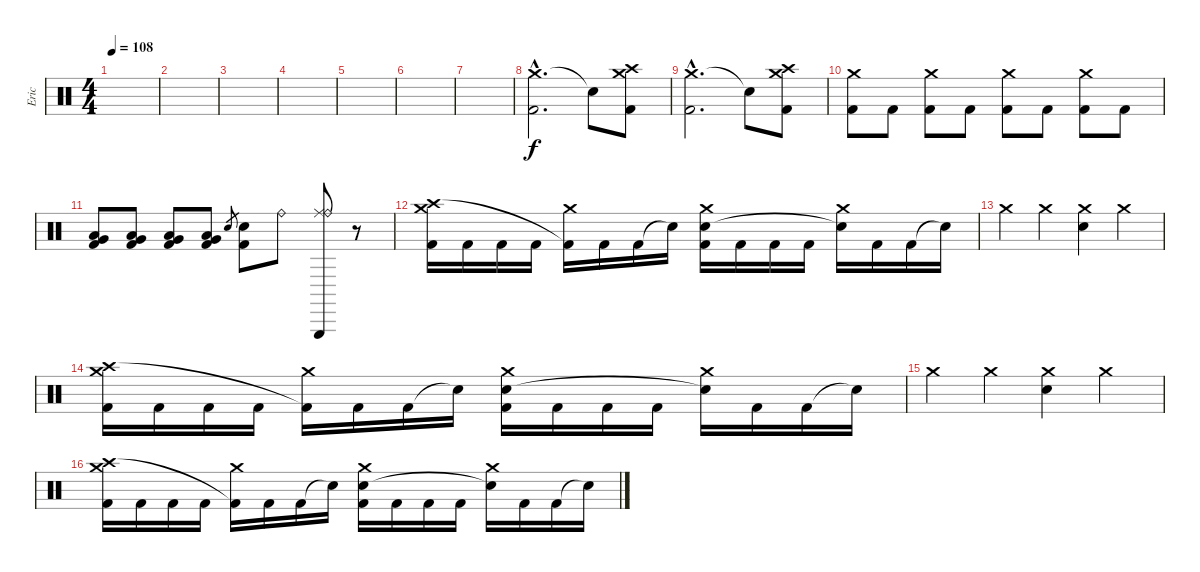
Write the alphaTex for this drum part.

\track ("Eric" "Eric") {instrument percussion}
\staff {score}
\articulation defaults
\ts (4 4)
\tempo 108
\clef neutral
\ks c
|
|
|
|
|
|
|
("Crash medium (hit)"{hac} "Kick (hit) 2"{hac}).2{d} "Snare (hit)"{t}.8 ("Crash medium (hit)" "Crash high (hit)" "Kick (hit) 2").8 |
("Crash medium (hit)"{hac} "Kick (hit) 2"{hac}).2{d} "Snare (hit)"{t}.8 ("Crash medium (hit)" "Crash high (hit)" "Kick (hit) 2").8 |
("Crash medium (hit)" "Kick (hit) 2").8 "Kick (hit) 2".8 ("Crash medium (hit)" "Kick (hit) 2").8 "Kick (hit) 2".8 ("Crash medium (hit)" "Kick (hit) 2").8 "Kick (hit) 2".8 ("Crash medium (hit)" "Kick (hit) 2").8 "Kick (hit) 2".8 |
("Low Tom (hit)" "Very Low Tom (hit)" "Kick (hit) 2").8 ("Low Tom (hit)" "Very Low Tom (hit)" "Kick (hit) 2").8 ("Low Tom (hit)" "Very Low Tom (hit)" "Kick (hit) 2").8 ("Low Tom (hit)" "Very Low Tom (hit)" "Kick (hit) 2").8 "Electric Snare (hit)".8{gr} ("Electric Snare (hit)" "Kick (hit) 2").8 "Ride (bell)".8 ("Ride (middle)" "Triangle (hit)" "Ride (bell)").8 r.8 |
("Crash medium (hit)" "Crash high (hit)" "Kick (hit) 2").16 "Kick (hit) 2".16 "Kick (hit) 2".16 "Kick (hit) 2".16 ("Crash medium (hit)" "Kick (hit) 2"{t}).16 "Kick (hit) 2".16 "Kick (hit) 2".16 "Snare (hit)"{t}.16 ("Crash medium (hit)" "Electric Snare (hit)" "Kick (hit) 2").16 "Kick (hit) 2".16 "Kick (hit) 2".16 "Kick (hit) 2".16 ("Crash medium (hit)" "Snare (hit)"{t}).16 "Kick (hit) 2".16 "Kick (hit) 2".16 "Snare (hit)"{t}.16 |
"Crash medium (hit)".4 "Crash medium (hit)".4 ("Crash medium (hit)" "Electric Snare (hit)").4 "Crash medium (hit)".4 |
("Crash medium (hit)" "Crash high (hit)" "Kick (hit) 2").16 "Kick (hit) 2".16 "Kick (hit) 2".16 "Kick (hit) 2".16 ("Crash medium (hit)" "Kick (hit) 2"{t}).16 "Kick (hit) 2".16 "Kick (hit) 2".16 "Snare (hit)"{t}.16 ("Crash medium (hit)" "Electric Snare (hit)" "Kick (hit) 2").16 "Kick (hit) 2".16 "Kick (hit) 2".16 "Kick (hit) 2".16 ("Crash medium (hit)" "Snare (hit)"{t}).16 "Kick (hit) 2".16 "Kick (hit) 2".16 "Snare (hit)"{t}.16 |
"Crash medium (hit)".4 "Crash medium (hit)".4 ("Crash medium (hit)" "Electric Snare (hit)").4 "Crash medium (hit)".4 |
("Crash medium (hit)" "Crash high (hit)" "Kick (hit) 2").16 "Kick (hit) 2".16 "Kick (hit) 2".16 "Kick (hit) 2".16 ("Crash medium (hit)" "Kick (hit) 2"{t}).16 "Kick (hit) 2".16 "Kick (hit) 2".16 "Snare (hit)"{t}.16 ("Crash medium (hit)" "Electric Snare (hit)" "Kick (hit) 2").16 "Kick (hit) 2".16 "Kick (hit) 2".16 "Kick (hit) 2".16 ("Crash medium (hit)" "Snare (hit)"{t}).16 "Kick (hit) 2".16 "Kick (hit) 2".16 "Snare (hit)"{t}.16
